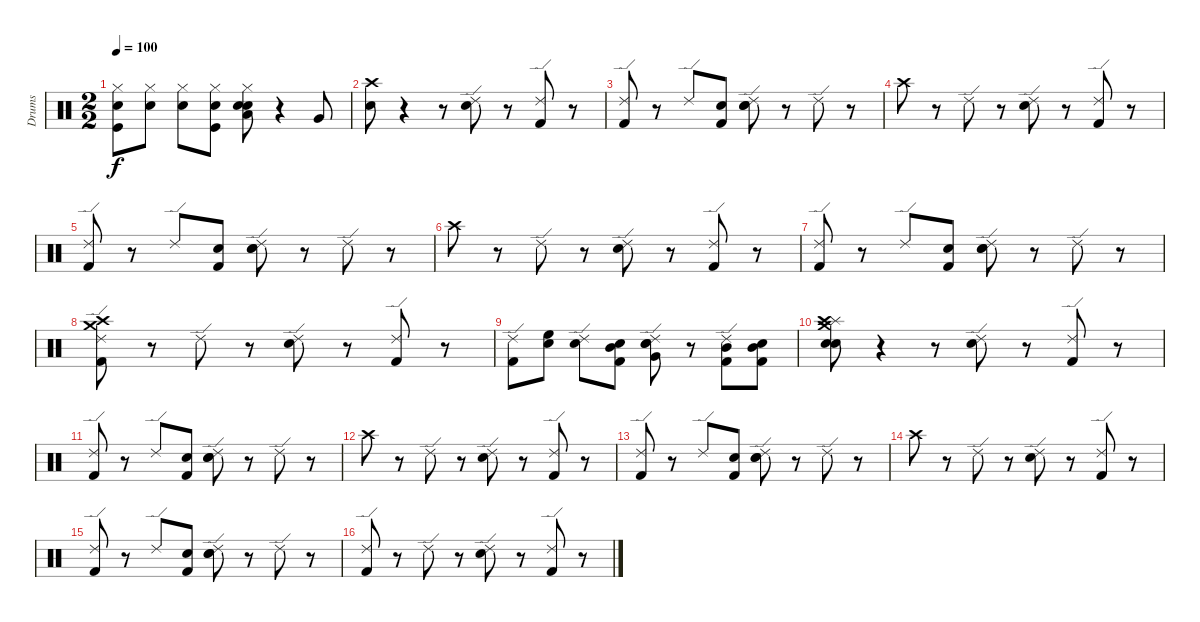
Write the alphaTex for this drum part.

\track ("Drums" "Drums") {instrument percussion}
\staff {score}
\articulation defaults
\ts (2 2)
\tempo 100
\clef neutral
\ks c
("Snare (hit)" "Kick (hit)" "Hi-Hat (closed)").8{dy f} ("Snare (hit)" "Hi-Hat (closed)").8 ("Snare (hit)" "Hi-Hat (closed)").8 ("Snare (hit)" "Kick (hit)" "Hi-Hat (closed)").8 ("Snare (hit)" "Low Tom (hit)" "Snare (hit) 2" "Hi-Hat (closed)").8 r.4 "Very Low Tom (hit)".8 |
("Snare (hit)" "Crash high (hit)").8 r.4 r.8 ("Snare (hit) 2" "Ride (edge) 2").8 r.8 ("Kick (hit) 2" "Ride (edge) 2").8 r.8 |
("Kick (hit) 2" "Ride (edge) 2").8 r.8 "Ride (edge) 2".8 ("Snare (hit)" "Kick (hit) 2").8 ("Snare (hit)" "Snare (hit) 2" "Ride (edge) 2").8 r.8 "Ride (edge) 2".8 r.8 |
"Crash high (hit)".8 r.8 "Ride (edge) 2".8 r.8 ("Snare (hit) 2" "Ride (edge) 2").8 r.8 ("Kick (hit) 2" "Ride (edge) 2").8 r.8 |
("Kick (hit) 2" "Ride (edge) 2").8 r.8 "Ride (edge) 2".8 ("Snare (hit)" "Kick (hit) 2").8 ("Snare (hit)" "Snare (hit) 2" "Ride (edge) 2").8 r.8 "Ride (edge) 2".8 r.8 |
"Crash high (hit)".8 r.8 "Ride (edge) 2".8 r.8 ("Snare (hit) 2" "Ride (edge) 2").8 r.8 ("Kick (hit) 2" "Ride (edge) 2").8 r.8 |
("Ride (edge) 2" "Kick (hit) 2").8 r.8 "Ride (edge) 2".8 ("Snare (hit)" "Kick (hit) 2").8 ("Snare (hit)" "Ride (edge) 2" "Snare (hit) 2").8 r.8 "Ride (edge) 2".8 r.8 |
("Crash high (hit)" "Crash medium (hit)" "Kick (hit) 2" "Ride (edge) 2").8 r.8 "Ride (edge) 2".8 r.8 ("Snare (hit) 2" "Ride (edge) 2").8 r.8 ("Kick (hit) 2" "Ride (edge) 2").8 r.8 |
("Kick (hit) 2" "Ride (edge) 2").8 ("Snare (hit)" "High Floor Tom (hit)").8 ("Snare (hit)" "Ride (edge) 2").8 ("Snare (hit)" "Mid Tom (hit)" "Kick (hit) 2").8 ("Snare (hit)" "Very Low Tom (hit)" "Snare (hit) 2" "Ride (edge) 2").8 r.8 ("Mid Tom (hit)" "Kick (hit) 2" "Ride (edge) 2").8 ("Snare (hit)" "Mid Tom (hit)" "Kick (hit) 2").8 |
("Snare (hit)" "Snare (hit) 2" "Crash medium (hit)" "Splash (hit)" "Crash high (hit)").8 r.4 r.8 ("Snare (hit) 2" "Ride (edge) 2").8 r.8 ("Kick (hit) 2" "Ride (edge) 2").8 r.8 |
("Kick (hit) 2" "Ride (edge) 2").8 r.8 "Ride (edge) 2".8 ("Snare (hit)" "Kick (hit) 2").8 ("Snare (hit)" "Snare (hit) 2" "Ride (edge) 2").8 r.8 "Ride (edge) 2".8 r.8 |
"Crash high (hit)".8 r.8 "Ride (edge) 2".8 r.8 ("Snare (hit) 2" "Ride (edge) 2").8 r.8 ("Kick (hit) 2" "Ride (edge) 2").8 r.8 |
("Kick (hit) 2" "Ride (edge) 2").8 r.8 "Ride (edge) 2".8 ("Snare (hit)" "Kick (hit) 2").8 ("Snare (hit)" "Snare (hit) 2" "Ride (edge) 2").8 r.8 "Ride (edge) 2".8 r.8 |
"Crash high (hit)".8 r.8 "Ride (edge) 2".8 r.8 ("Snare (hit) 2" "Ride (edge) 2").8 r.8 ("Kick (hit) 2" "Ride (edge) 2").8 r.8 |
("Ride (edge) 2" "Kick (hit) 2").8 r.8 "Ride (edge) 2".8 ("Snare (hit)" "Kick (hit) 2").8 ("Snare (hit)" "Ride (edge) 2" "Snare (hit) 2").8 r.8 "Ride (edge) 2".8 r.8 |
("Kick (hit) 2" "Ride (edge) 2").8 r.8 "Ride (edge) 2".8 r.8 ("Snare (hit) 2" "Ride (edge) 2").8 r.8 ("Kick (hit) 2" "Ride (edge) 2").8 r.8
